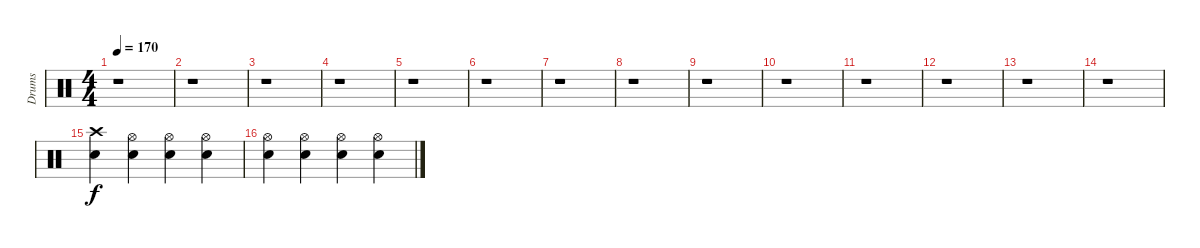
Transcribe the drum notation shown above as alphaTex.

\track ("Drums" "Drums") {instrument percussion}
\staff {score}
\articulation defaults
\ts (4 4)
\tempo 170
\clef neutral
\ks c
r.1{dy f} |
r.1 |
r.1 |
r.1 |
r.1 |
r.1 |
r.1 |
r.1 |
r.1 |
r.1 |
r.1 |
r.1 |
r.1 |
r.1 |
("Crash high (hit)" "Snare (hit) 2").4 ("Hi-Hat (open)" "Snare (hit) 2").4 ("Hi-Hat (open)" "Snare (hit) 2").4 ("Hi-Hat (open)" "Snare (hit) 2").4 |
("Hi-Hat (open)" "Snare (hit) 2").4 ("Hi-Hat (open)" "Snare (hit) 2").4 ("Hi-Hat (open)" "Snare (hit) 2").4 ("Hi-Hat (open)" "Snare (hit) 2").4
